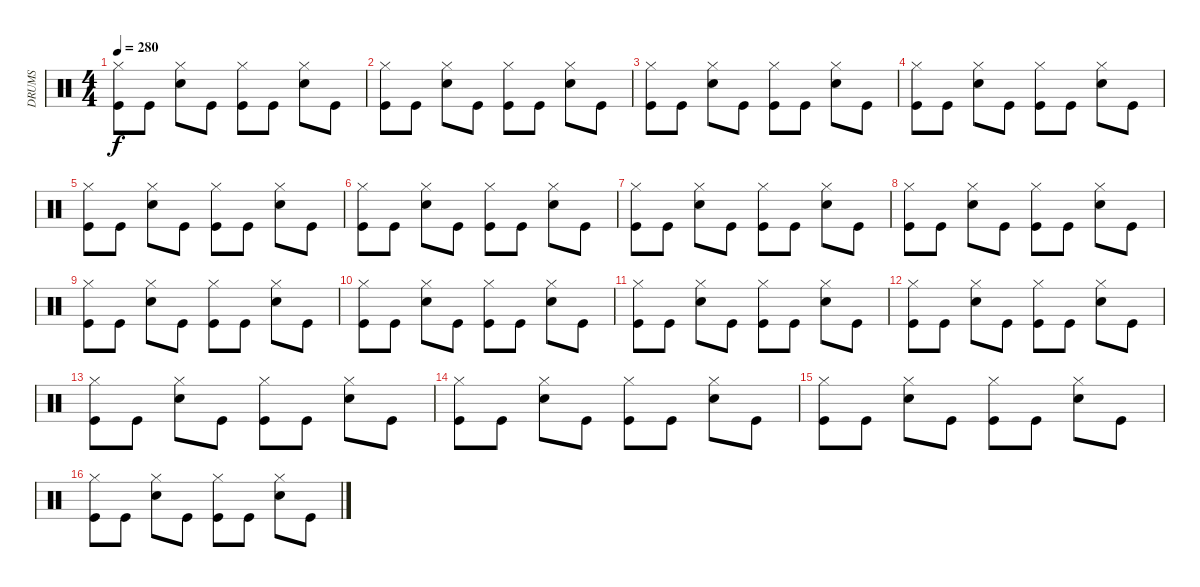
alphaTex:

\track ("DRUMS" "DRUMS") {instrument percussion}
\staff {score}
\articulation defaults
\ts (4 4)
\tempo 280
\clef neutral
\ks c
("Hi-Hat (closed)" "Kick (hit)").8{dy f} "Kick (hit)".8 ("Hi-Hat (closed)" "Snare (hit) 2").8 "Kick (hit)".8 ("Hi-Hat (closed)" "Kick (hit)").8 "Kick (hit)".8 ("Hi-Hat (closed)" "Snare (hit) 2").8 "Kick (hit)".8 |
("Hi-Hat (closed)" "Kick (hit)").8 "Kick (hit)".8 ("Hi-Hat (closed)" "Snare (hit) 2").8 "Kick (hit)".8 ("Hi-Hat (closed)" "Kick (hit)").8 "Kick (hit)".8 ("Hi-Hat (closed)" "Snare (hit) 2").8 "Kick (hit)".8 |
("Hi-Hat (closed)" "Kick (hit)").8 "Kick (hit)".8 ("Hi-Hat (closed)" "Snare (hit) 2").8 "Kick (hit)".8 ("Hi-Hat (closed)" "Kick (hit)").8 "Kick (hit)".8 ("Hi-Hat (closed)" "Snare (hit) 2").8 "Kick (hit)".8 |
("Hi-Hat (closed)" "Kick (hit)").8 "Kick (hit)".8 ("Hi-Hat (closed)" "Snare (hit) 2").8 "Kick (hit)".8 ("Hi-Hat (closed)" "Kick (hit)").8 "Kick (hit)".8 ("Hi-Hat (closed)" "Snare (hit) 2").8 "Kick (hit)".8 |
("Hi-Hat (closed)" "Kick (hit)").8 "Kick (hit)".8 ("Hi-Hat (closed)" "Snare (hit) 2").8 "Kick (hit)".8 ("Hi-Hat (closed)" "Kick (hit)").8 "Kick (hit)".8 ("Hi-Hat (closed)" "Snare (hit) 2").8 "Kick (hit)".8 |
("Hi-Hat (closed)" "Kick (hit)").8 "Kick (hit)".8 ("Hi-Hat (closed)" "Snare (hit) 2").8 "Kick (hit)".8 ("Hi-Hat (closed)" "Kick (hit)").8 "Kick (hit)".8 ("Hi-Hat (closed)" "Snare (hit) 2").8 "Kick (hit)".8 |
("Hi-Hat (closed)" "Kick (hit)").8 "Kick (hit)".8 ("Hi-Hat (closed)" "Snare (hit) 2").8 "Kick (hit)".8 ("Hi-Hat (closed)" "Kick (hit)").8 "Kick (hit)".8 ("Hi-Hat (closed)" "Snare (hit) 2").8 "Kick (hit)".8 |
("Hi-Hat (closed)" "Kick (hit)").8 "Kick (hit)".8 ("Hi-Hat (closed)" "Snare (hit) 2").8 "Kick (hit)".8 ("Hi-Hat (closed)" "Kick (hit)").8 "Kick (hit)".8 ("Hi-Hat (closed)" "Snare (hit) 2").8 "Kick (hit)".8 |
("Hi-Hat (closed)" "Kick (hit)").8 "Kick (hit)".8 ("Hi-Hat (closed)" "Snare (hit) 2").8 "Kick (hit)".8 ("Hi-Hat (closed)" "Kick (hit)").8 "Kick (hit)".8 ("Hi-Hat (closed)" "Snare (hit) 2").8 "Kick (hit)".8 |
("Hi-Hat (closed)" "Kick (hit)").8 "Kick (hit)".8 ("Hi-Hat (closed)" "Snare (hit) 2").8 "Kick (hit)".8 ("Hi-Hat (closed)" "Kick (hit)").8 "Kick (hit)".8 ("Hi-Hat (closed)" "Snare (hit) 2").8 "Kick (hit)".8 |
("Hi-Hat (closed)" "Kick (hit)").8 "Kick (hit)".8 ("Hi-Hat (closed)" "Snare (hit) 2").8 "Kick (hit)".8 ("Hi-Hat (closed)" "Kick (hit)").8 "Kick (hit)".8 ("Hi-Hat (closed)" "Snare (hit) 2").8 "Kick (hit)".8 |
("Hi-Hat (closed)" "Kick (hit)").8 "Kick (hit)".8 ("Hi-Hat (closed)" "Snare (hit) 2").8 "Kick (hit)".8 ("Hi-Hat (closed)" "Kick (hit)").8 "Kick (hit)".8 ("Hi-Hat (closed)" "Snare (hit) 2").8 "Kick (hit)".8 |
("Hi-Hat (closed)" "Kick (hit)").8 "Kick (hit)".8 ("Hi-Hat (closed)" "Snare (hit) 2").8 "Kick (hit)".8 ("Hi-Hat (closed)" "Kick (hit)").8 "Kick (hit)".8 ("Hi-Hat (closed)" "Snare (hit) 2").8 "Kick (hit)".8 |
("Hi-Hat (closed)" "Kick (hit)").8 "Kick (hit)".8 ("Hi-Hat (closed)" "Snare (hit) 2").8 "Kick (hit)".8 ("Hi-Hat (closed)" "Kick (hit)").8 "Kick (hit)".8 ("Hi-Hat (closed)" "Snare (hit) 2").8 "Kick (hit)".8 |
("Hi-Hat (closed)" "Kick (hit)").8 "Kick (hit)".8 ("Hi-Hat (closed)" "Snare (hit) 2").8 "Kick (hit)".8 ("Hi-Hat (closed)" "Kick (hit)").8 "Kick (hit)".8 ("Hi-Hat (closed)" "Snare (hit) 2").8 "Kick (hit)".8 |
("Hi-Hat (closed)" "Kick (hit)").8 "Kick (hit)".8 ("Hi-Hat (closed)" "Snare (hit) 2").8 "Kick (hit)".8 ("Hi-Hat (closed)" "Kick (hit)").8 "Kick (hit)".8 ("Hi-Hat (closed)" "Snare (hit) 2").8 "Kick (hit)".8
